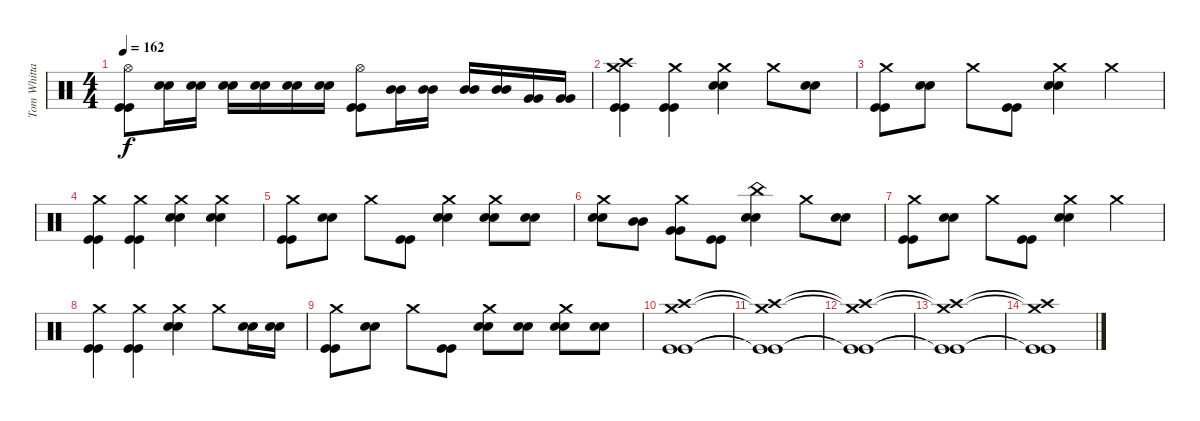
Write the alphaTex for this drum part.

\track ("Tom Whittaker" "Tom Whitta") {instrument percussion}
\staff {score}
\articulation defaults
\ts (4 4)
\tempo 162
\clef neutral
\ks c
("Hi-Hat (open)" "Kick (hit)" "Kick (hit)").8{dy f} ("Electric Snare (hit)" "Electric Snare (hit)").16 ("Electric Snare (hit)" "Electric Snare (hit)").16 ("Electric Snare (hit)" "Electric Snare (hit)").16 ("Electric Snare (hit)" "Electric Snare (hit)").16 ("Electric Snare (hit)" "Electric Snare (hit)").16 ("Electric Snare (hit)" "Electric Snare (hit)").16 ("Hi-Hat (open)" "Kick (hit)" "Kick (hit)").8 ("Mid Tom (hit)" "Mid Tom (hit)").16 ("Mid Tom (hit)" "Mid Tom (hit)").16 ("Mid Tom (hit)" "Mid Tom (hit)").16 ("Mid Tom (hit)" "Mid Tom (hit)").16 ("Very Low Tom (hit)" "Very Low Tom (hit)").16 ("Very Low Tom (hit)" "Very Low Tom (hit)").16 |
("Crash medium (hit)" "Crash high (hit)" "Kick (hit)" "Kick (hit)").4 ("Crash medium (hit)" "Kick (hit)" "Kick (hit)").4 ("Crash medium (hit)" "Electric Snare (hit)" "Electric Snare (hit)").4 "Crash medium (hit)".8 ("Electric Snare (hit)" "Electric Snare (hit)").8 |
("Crash medium (hit)" "Kick (hit)" "Kick (hit)").8 ("Electric Snare (hit)" "Electric Snare (hit)").8 "Crash medium (hit)".8 ("Kick (hit)" "Kick (hit)").8 ("Crash medium (hit)" "Electric Snare (hit)" "Electric Snare (hit)").4 "Crash medium (hit)".4 |
("Crash medium (hit)" "Kick (hit)" "Kick (hit)").4 ("Crash medium (hit)" "Kick (hit)" "Kick (hit)").4 ("Crash medium (hit)" "Electric Snare (hit)" "Electric Snare (hit)").4 ("Crash medium (hit)" "Electric Snare (hit)" "Electric Snare (hit)").4 |
("Crash medium (hit)" "Kick (hit)" "Kick (hit)").8 ("Electric Snare (hit)" "Electric Snare (hit)").8 "Crash medium (hit)".8 ("Kick (hit)" "Kick (hit)").8 ("Crash medium (hit)" "Electric Snare (hit)" "Electric Snare (hit)").4 ("Crash medium (hit)" "Electric Snare (hit)" "Electric Snare (hit)").8 ("Electric Snare (hit)" "Electric Snare (hit)").8 |
("Crash medium (hit)" "Electric Snare (hit)" "Electric Snare (hit)").8 ("Mid Tom (hit)" "Mid Tom (hit)").8 ("Crash medium (hit)" "Very Low Tom (hit)" "Very Low Tom (hit)").8 ("Kick (hit)" "Kick (hit)").8 ("China (hit)" "Electric Snare (hit)" "Electric Snare (hit)").4 "Crash medium (hit)".8 ("Electric Snare (hit)" "Electric Snare (hit)").8 |
("Crash medium (hit)" "Kick (hit)" "Kick (hit)").8 ("Electric Snare (hit)" "Electric Snare (hit)").8 "Crash medium (hit)".8 ("Kick (hit)" "Kick (hit)").8 ("Crash medium (hit)" "Electric Snare (hit)" "Electric Snare (hit)").4 "Crash medium (hit)".4 |
("Crash medium (hit)" "Kick (hit)" "Kick (hit)").4 ("Crash medium (hit)" "Kick (hit)" "Kick (hit)").4 ("Crash medium (hit)" "Electric Snare (hit)" "Electric Snare (hit)").4 "Crash medium (hit)".8 ("Electric Snare (hit)" "Electric Snare (hit)").16 ("Electric Snare (hit)" "Electric Snare (hit)").16 |
("Crash medium (hit)" "Kick (hit)" "Kick (hit)").8 ("Electric Snare (hit)" "Electric Snare (hit)").8 "Crash medium (hit)".8 ("Kick (hit)" "Kick (hit)").8 ("Crash medium (hit)" "Electric Snare (hit)" "Electric Snare (hit)").8 ("Electric Snare (hit)" "Electric Snare (hit)").8 ("Crash medium (hit)" "Electric Snare (hit)" "Electric Snare (hit)").8 ("Electric Snare (hit)" "Electric Snare (hit)").8 |
("Crash medium (hit)" "Crash high (hit)" "Kick (hit)" "Kick (hit)").1 |
("Crash medium (hit)"{t} "Crash high (hit)"{t} "Kick (hit)"{t} "Kick (hit)"{t}).1 |
("Crash medium (hit)"{t} "Crash high (hit)"{t} "Kick (hit)"{t} "Kick (hit)"{t}).1 |
("Crash medium (hit)"{t} "Crash high (hit)"{t} "Kick (hit)"{t} "Kick (hit)"{t}).1 |
("Crash medium (hit)"{t} "Crash high (hit)"{t} "Kick (hit)"{t} "Kick (hit)"{t}).1
